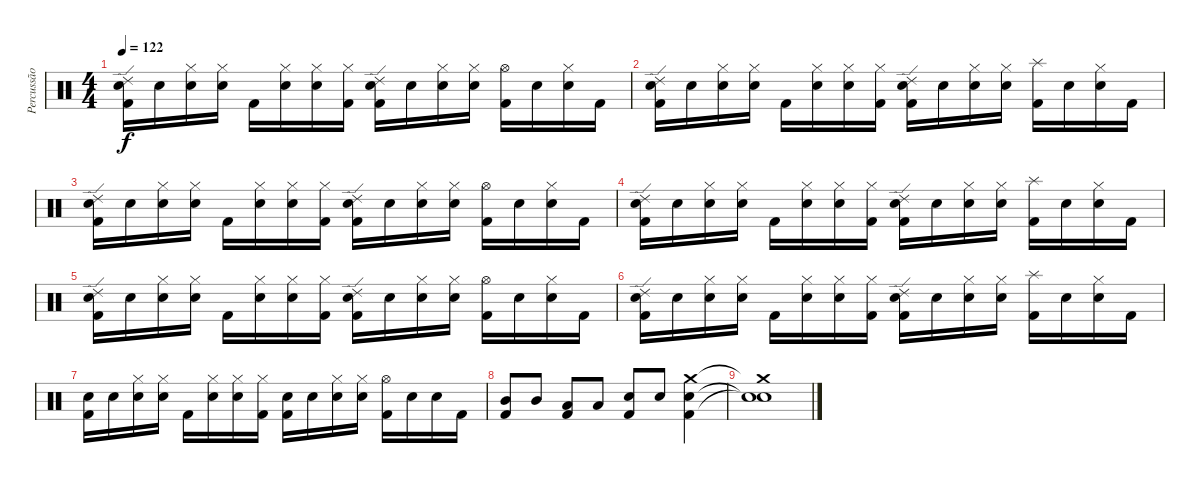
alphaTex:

\track ("Percussão" "Percussão") {instrument percussion}
\staff {score}
\articulation defaults
\ts (4 4)
\tempo 122
\clef neutral
\ks c
("Kick (hit) 2" "Electric Snare (hit)" "Ride (edge) 2").16{dy f} "Snare (hit)".16 ("Snare (hit)" "Hi-Hat (closed)").16 ("Snare (hit)" "Hi-Hat (closed)").16 "Kick (hit) 2".16 ("Snare (hit)" "Hi-Hat (closed)").16 ("Snare (hit)" "Hi-Hat (closed)").16 ("Kick (hit) 2" "Hi-Hat (closed)").16 ("Kick (hit) 2" "Electric Snare (hit)" "Ride (edge) 2").16 "Snare (hit)".16 ("Snare (hit)" "Hi-Hat (closed)").16 ("Snare (hit)" "Hi-Hat (closed)").16 ("Kick (hit) 2" "Hi-Hat (open)").16 "Snare (hit)".16 ("Snare (hit)" "Hi-Hat (closed)").16 "Kick (hit) 2".16 |
("Kick (hit) 2" "Electric Snare (hit)" "Ride (edge) 2").16 "Snare (hit)".16 ("Snare (hit)" "Hi-Hat (closed)").16 ("Snare (hit)" "Hi-Hat (closed)").16 "Kick (hit) 2".16 ("Snare (hit)" "Hi-Hat (closed)").16 ("Snare (hit)" "Hi-Hat (closed)").16 ("Kick (hit) 2" "Hi-Hat (closed)").16 ("Kick (hit) 2" "Electric Snare (hit)" "Ride (edge) 2").16 "Snare (hit)".16 ("Snare (hit)" "Hi-Hat (closed)").16 ("Snare (hit)" "Hi-Hat (closed)").16 ("Kick (hit) 2" "Splash (hit)").16 "Snare (hit)".16 ("Snare (hit)" "Hi-Hat (closed)").16 "Kick (hit) 2".16 |
("Kick (hit) 2" "Electric Snare (hit)" "Ride (edge) 2").16 "Snare (hit)".16 ("Snare (hit)" "Hi-Hat (closed)").16 ("Snare (hit)" "Hi-Hat (closed)").16 "Kick (hit) 2".16 ("Snare (hit)" "Hi-Hat (closed)").16 ("Snare (hit)" "Hi-Hat (closed)").16 ("Kick (hit) 2" "Hi-Hat (closed)").16 ("Kick (hit) 2" "Electric Snare (hit)" "Ride (edge) 2").16 "Snare (hit)".16 ("Snare (hit)" "Hi-Hat (closed)").16 ("Snare (hit)" "Hi-Hat (closed)").16 ("Kick (hit) 2" "Hi-Hat (open)").16 "Snare (hit)".16 ("Snare (hit)" "Hi-Hat (closed)").16 "Kick (hit) 2".16 |
("Kick (hit) 2" "Electric Snare (hit)" "Ride (edge) 2").16 "Snare (hit)".16 ("Snare (hit)" "Hi-Hat (closed)").16 ("Snare (hit)" "Hi-Hat (closed)").16 "Kick (hit) 2".16 ("Snare (hit)" "Hi-Hat (closed)").16 ("Snare (hit)" "Hi-Hat (closed)").16 ("Kick (hit) 2" "Hi-Hat (closed)").16 ("Kick (hit) 2" "Electric Snare (hit)" "Ride (edge) 2").16 "Snare (hit)".16 ("Snare (hit)" "Hi-Hat (closed)").16 ("Snare (hit)" "Hi-Hat (closed)").16 ("Kick (hit) 2" "Splash (hit)").16 "Snare (hit)".16 ("Snare (hit)" "Hi-Hat (closed)").16 "Kick (hit) 2".16 |
("Kick (hit) 2" "Electric Snare (hit)" "Ride (edge) 2").16 "Snare (hit)".16 ("Snare (hit)" "Hi-Hat (closed)").16 ("Snare (hit)" "Hi-Hat (closed)").16 "Kick (hit) 2".16 ("Snare (hit)" "Hi-Hat (closed)").16 ("Snare (hit)" "Hi-Hat (closed)").16 ("Kick (hit) 2" "Hi-Hat (closed)").16 ("Kick (hit) 2" "Electric Snare (hit)" "Ride (edge) 2").16 "Snare (hit)".16 ("Snare (hit)" "Hi-Hat (closed)").16 ("Snare (hit)" "Hi-Hat (closed)").16 ("Kick (hit) 2" "Hi-Hat (open)").16 "Snare (hit)".16 ("Snare (hit)" "Hi-Hat (closed)").16 "Kick (hit) 2".16 |
("Kick (hit) 2" "Electric Snare (hit)" "Ride (edge) 2").16 "Snare (hit)".16 ("Snare (hit)" "Hi-Hat (closed)").16 ("Snare (hit)" "Hi-Hat (closed)").16 "Kick (hit) 2".16 ("Snare (hit)" "Hi-Hat (closed)").16 ("Snare (hit)" "Hi-Hat (closed)").16 ("Kick (hit) 2" "Hi-Hat (closed)").16 ("Kick (hit) 2" "Electric Snare (hit)" "Ride (edge) 2").16 "Snare (hit)".16 ("Snare (hit)" "Hi-Hat (closed)").16 ("Snare (hit)" "Hi-Hat (closed)").16 ("Kick (hit) 2" "Splash (hit)").16 "Snare (hit)".16 ("Snare (hit)" "Hi-Hat (closed)").16 "Kick (hit) 2".16 |
("Kick (hit) 2" "Electric Snare (hit)").16 "Snare (hit)".16 ("Snare (hit)" "Hi-Hat (closed)").16 ("Snare (hit)" "Hi-Hat (closed)").16 "Kick (hit) 2".16 ("Snare (hit)" "Hi-Hat (closed)").16 ("Snare (hit)" "Hi-Hat (closed)").16 ("Kick (hit) 2" "Hi-Hat (closed)").16 ("Kick (hit) 2" "Electric Snare (hit)").16 "Snare (hit)".16 ("Snare (hit)" "Hi-Hat (closed)").16 ("Snare (hit)" "Hi-Hat (closed)").16 ("Kick (hit) 2" "Hi-Hat (open)").16 "Snare (hit)".16 "Snare (hit)".16 "Kick (hit) 2".16 |
("Mid Tom (hit)" "Kick (hit) 2").8 "Mid Tom (hit)".8 ("Low Tom (hit)" "Kick (hit) 2").8 "Low Tom (hit)".8 ("Electric Snare (hit)" "Kick (hit) 2").8 "Electric Snare (hit)".8 ("Kick (hit) 2" "Electric Snare (hit)" "Crash medium (hit)").4 |
("Snare (hit)"{t} "Snare (hit)"{t} "Crash medium (hit)"{t}).1
